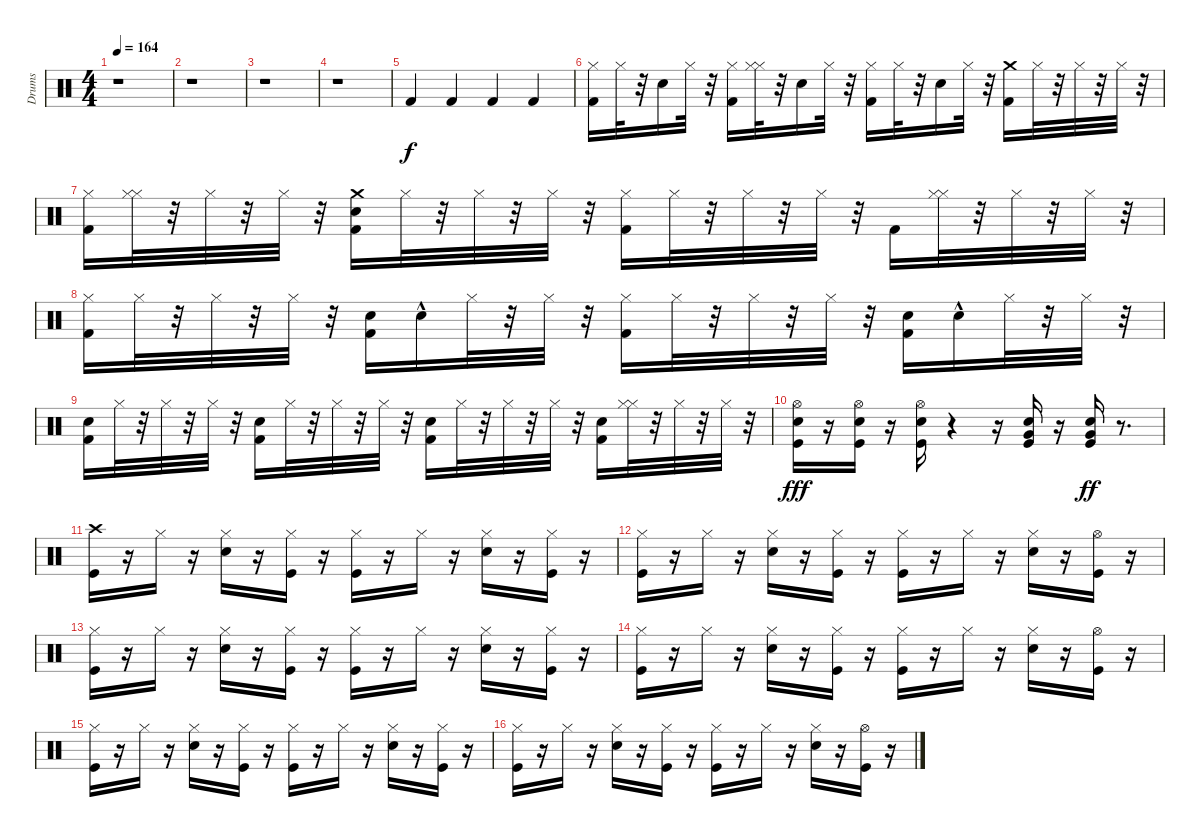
\track ("Drums" "Drums") {instrument percussion}
\staff {score}
\articulation defaults
\ts (4 4)
\tempo 164
\clef neutral
\ks c
r.1{dy f} |
r.1 |
r.1 |
r.1 |
"Kick (hit) 2".4 "Kick (hit) 2".4 "Kick (hit) 2".4 "Kick (hit) 2".4 |
("Hi-Hat (closed)" "Kick (hit) 2").16 "Hi-Hat (closed)".32 r.32 "Electric Snare (hit)".16 "Hi-Hat (closed)".32 r.32 ("Hi-Hat (closed)" "Kick (hit) 2").16 ("Hi-Hat (closed)" "Hi-Hat (closed)").32 r.32 "Electric Snare (hit)".16 "Hi-Hat (closed)".32 r.32 ("Hi-Hat (closed)" "Kick (hit) 2").16 "Hi-Hat (closed)".32 r.32 "Electric Snare (hit)".16 "Hi-Hat (closed)".32 r.32 ("Crash medium (hit)" "Kick (hit) 2").16 "Hi-Hat (closed)".32 r.32 "Hi-Hat (closed)".32 r.32 "Hi-Hat (closed)".32 r.32 |
("Hi-Hat (closed)" "Kick (hit) 2").16 ("Hi-Hat (closed)" "Hi-Hat (closed)").32 r.32 "Hi-Hat (closed)".32 r.32 "Hi-Hat (closed)".32 r.32 ("Crash medium (hit)" "Electric Snare (hit)" "Kick (hit) 2").16 "Hi-Hat (closed)".32 r.32 "Hi-Hat (closed)".32 r.32 "Hi-Hat (closed)".32 r.32 ("Hi-Hat (closed)" "Kick (hit) 2").16 "Hi-Hat (closed)".32 r.32 "Hi-Hat (closed)".32 r.32 "Hi-Hat (closed)".32 r.32 "Kick (hit) 2".16 ("Hi-Hat (closed)" "Hi-Hat (closed)").32 r.32 "Hi-Hat (closed)".32 r.32 "Hi-Hat (closed)".32 r.32 |
("Hi-Hat (closed)" "Kick (hit) 2").16 "Hi-Hat (closed)".32 r.32 "Hi-Hat (closed)".32 r.32 "Hi-Hat (closed)".32 r.32 ("Electric Snare (hit)" "Kick (hit) 2").16 "Electric Snare (hit)"{hac}.16 "Hi-Hat (closed)".32 r.32 "Hi-Hat (closed)".32 r.32 ("Hi-Hat (closed)" "Kick (hit) 2").16 "Hi-Hat (closed)".32 r.32 "Hi-Hat (closed)".32 r.32 "Hi-Hat (closed)".32 r.32 ("Electric Snare (hit)" "Kick (hit) 2").16 "Electric Snare (hit)"{hac}.16 "Hi-Hat (closed)".32 r.32 "Hi-Hat (closed)".32 r.32 |
("Electric Snare (hit)" "Kick (hit) 2").16 "Hi-Hat (closed)".32 r.32 "Hi-Hat (closed)".32 r.32 "Hi-Hat (closed)".32 r.32 ("Electric Snare (hit)" "Kick (hit) 2").16 "Hi-Hat (closed)".32 r.32 "Hi-Hat (closed)".32 r.32 "Hi-Hat (closed)".32 r.32 ("Electric Snare (hit)" "Kick (hit) 2").16 "Hi-Hat (closed)".32 r.32 "Hi-Hat (closed)".32 r.32 "Hi-Hat (closed)".32 r.32 ("Electric Snare (hit)" "Kick (hit) 2").16 ("Hi-Hat (closed)" "Hi-Hat (closed)").32 r.32 "Hi-Hat (closed)".32 r.32 "Hi-Hat (closed)".32 r.32 |
("Kick (hit)" "Hi-Hat (open)" "Electric Snare (hit)").16{dy fff} r.16 ("Kick (hit)" "Hi-Hat (open)" "Electric Snare (hit)").16 r.16 ("Kick (hit)" "Hi-Hat (open)" "Electric Snare (hit)").16 r.4 r.16 ("Kick (hit)" "Very Low Tom (hit)" "Electric Snare (hit)").16 r.16 ("Electric Snare (hit)" "Kick (hit)" "Very Low Tom (hit)").16{dy ff} r.8{d} |
("Kick (hit)" "Crash high (hit)").16 r.16 "Hi-Hat (closed)".16 r.16 ("Electric Snare (hit)" "Hi-Hat (closed)").16 r.16 ("Kick (hit)" "Hi-Hat (closed)").16 r.16 ("Kick (hit)" "Hi-Hat (closed)").16 r.16 "Hi-Hat (closed)".16 r.16 ("Electric Snare (hit)" "Hi-Hat (closed)").16 r.16 ("Kick (hit)" "Hi-Hat (closed)").16 r.16 |
("Kick (hit)" "Hi-Hat (closed)").16 r.16 "Hi-Hat (closed)".16 r.16 ("Electric Snare (hit)" "Hi-Hat (closed)").16 r.16 ("Kick (hit)" "Hi-Hat (closed)").16 r.16 ("Kick (hit)" "Hi-Hat (closed)").16 r.16 "Hi-Hat (closed)".16 r.16 ("Electric Snare (hit)" "Hi-Hat (closed)").16 r.16 ("Kick (hit)" "Hi-Hat (open)").16 r.16 |
("Kick (hit)" "Hi-Hat (closed)").16 r.16 "Hi-Hat (closed)".16 r.16 ("Electric Snare (hit)" "Hi-Hat (closed)").16 r.16 ("Kick (hit)" "Hi-Hat (closed)").16 r.16 ("Kick (hit)" "Hi-Hat (closed)").16 r.16 "Hi-Hat (closed)".16 r.16 ("Electric Snare (hit)" "Hi-Hat (closed)").16 r.16 ("Kick (hit)" "Hi-Hat (closed)").16 r.16 |
("Kick (hit)" "Hi-Hat (closed)").16 r.16 "Hi-Hat (closed)".16 r.16 ("Electric Snare (hit)" "Hi-Hat (closed)").16 r.16 ("Kick (hit)" "Hi-Hat (closed)").16 r.16 ("Kick (hit)" "Hi-Hat (closed)").16 r.16 "Hi-Hat (closed)".16 r.16 ("Electric Snare (hit)" "Hi-Hat (closed)").16 r.16 ("Kick (hit)" "Hi-Hat (open)").16 r.16 |
("Kick (hit)" "Hi-Hat (closed)").16 r.16 "Hi-Hat (closed)".16 r.16 ("Electric Snare (hit)" "Hi-Hat (closed)").16 r.16 ("Kick (hit)" "Hi-Hat (closed)").16 r.16 ("Kick (hit)" "Hi-Hat (closed)").16 r.16 "Hi-Hat (closed)".16 r.16 ("Electric Snare (hit)" "Hi-Hat (closed)").16 r.16 ("Kick (hit)" "Hi-Hat (closed)").16 r.16 |
("Kick (hit)" "Hi-Hat (closed)").16 r.16 "Hi-Hat (closed)".16 r.16 ("Electric Snare (hit)" "Hi-Hat (closed)").16 r.16 ("Kick (hit)" "Hi-Hat (closed)").16 r.16 ("Kick (hit)" "Hi-Hat (closed)").16 r.16 "Hi-Hat (closed)".16 r.16 ("Electric Snare (hit)" "Hi-Hat (closed)").16 r.16 ("Kick (hit)" "Hi-Hat (open)").16 r.16
